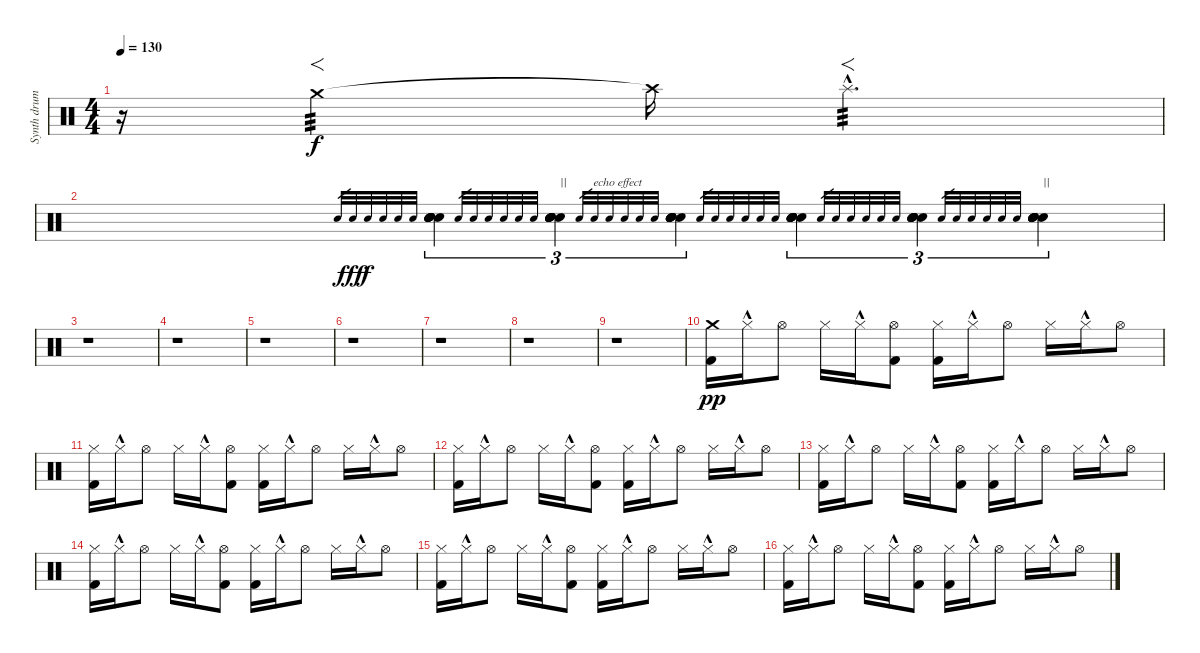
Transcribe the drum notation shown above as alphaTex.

\track ("Synth drums" "Synth drum") {instrument percussion}
\staff {score}
\articulation defaults
\ts (4 4)
\tempo 130
\clef neutral
\ks c
r.16{dy f} "Crash medium (hit)".2{f tp 3} "Crash high (hit)"{t}.16 "Splash (hit)"{hac}.4{f d tp 3} |
"Snare (hit) 2".32{gr} "Snare (hit) 2".32{gr dy fff} "Snare (hit) 2".32{gr dy f} "Snare (hit) 2".32{gr} "Snare (hit) 2".32{gr} "Snare (hit) 2".32{gr} ("Snare (hit) 2" "Snare (hit) 2" "Snare (hit) 2" "Snare (hit) 2" "Snare (hit) 2" "Snare (hit) 2").4{tu (3 2) volume 16} "Snare (hit) 2".32{gr} "Snare (hit) 2".32{gr} "Snare (hit) 2".32{gr} "Snare (hit) 2".32{gr} "Snare (hit) 2".32{gr} "Snare (hit) 2".32{gr} ("Snare (hit) 2" "Snare (hit) 2" "Snare (hit) 2" "Snare (hit) 2" "Snare (hit) 2" "Snare (hit) 2").4{tu (3 2) txt "||         echo effect" volume 13} "Snare (hit) 2".32{gr} "Snare (hit) 2".32{gr} "Snare (hit) 2".32{gr} "Snare (hit) 2".32{gr} "Snare (hit) 2".32{gr} "Snare (hit) 2".32{gr} ("Snare (hit) 2" "Snare (hit) 2" "Snare (hit) 2" "Snare (hit) 2" "Snare (hit) 2" "Snare (hit) 2").4{tu (3 2) volume 10} "Snare (hit) 2".32{gr} "Snare (hit) 2".32{gr} "Snare (hit) 2".32{gr} "Snare (hit) 2".32{gr} "Snare (hit) 2".32{gr} "Snare (hit) 2".32{gr} ("Snare (hit) 2" "Snare (hit) 2" "Snare (hit) 2" "Snare (hit) 2" "Snare (hit) 2" "Snare (hit) 2").4{tu (3 2) volume 8} "Snare (hit) 2".32{gr} "Snare (hit) 2".32{gr} "Snare (hit) 2".32{gr} "Snare (hit) 2".32{gr} "Snare (hit) 2".32{gr} "Snare (hit) 2".32{gr} ("Snare (hit) 2" "Snare (hit) 2" "Snare (hit) 2" "Snare (hit) 2" "Snare (hit) 2" "Snare (hit) 2").4{tu (3 2) volume 6} "Snare (hit) 2".32{gr} "Snare (hit) 2".32{gr} "Snare (hit) 2".32{gr} "Snare (hit) 2".32{gr} "Snare (hit) 2".32{gr} "Snare (hit) 2".32{gr} ("Snare (hit) 2" "Snare (hit) 2" "Snare (hit) 2" "Snare (hit) 2" "Snare (hit) 2" "Snare (hit) 2").4{tu (3 2) txt "||" volume 4} |
r.1 |
r.1 |
r.1 |
r.1 |
r.1 |
r.1 |
r.1 |
("Crash medium (hit)" "Kick (hit) 2").16{dy pp} "Hi-Hat (closed)"{hac}.16 "Hi-Hat (open)".8 "Hi-Hat (closed)".16 "Hi-Hat (closed)"{hac}.16 ("Hi-Hat (open)" "Kick (hit) 2").8 ("Hi-Hat (closed)" "Kick (hit) 2").16 "Hi-Hat (closed)"{hac}.16 "Hi-Hat (open)".8 "Hi-Hat (closed)".16 "Hi-Hat (closed)"{hac}.16 "Hi-Hat (open)".8 |
("Hi-Hat (closed)" "Kick (hit) 2").16 "Hi-Hat (closed)"{hac}.16 "Hi-Hat (open)".8 "Hi-Hat (closed)".16 "Hi-Hat (closed)"{hac}.16 ("Hi-Hat (open)" "Kick (hit) 2").8 ("Hi-Hat (closed)" "Kick (hit) 2").16 "Hi-Hat (closed)"{hac}.16 "Hi-Hat (open)".8 "Hi-Hat (closed)".16 "Hi-Hat (closed)"{hac}.16 "Hi-Hat (open)".8 |
("Hi-Hat (closed)" "Kick (hit) 2").16 "Hi-Hat (closed)"{hac}.16 "Hi-Hat (open)".8 "Hi-Hat (closed)".16 "Hi-Hat (closed)"{hac}.16 ("Hi-Hat (open)" "Kick (hit) 2").8 ("Hi-Hat (closed)" "Kick (hit) 2").16 "Hi-Hat (closed)"{hac}.16 "Hi-Hat (open)".8 "Hi-Hat (closed)".16 "Hi-Hat (closed)"{hac}.16 "Hi-Hat (open)".8 |
("Hi-Hat (closed)" "Kick (hit) 2").16 "Hi-Hat (closed)"{hac}.16 "Hi-Hat (open)".8 "Hi-Hat (closed)".16 "Hi-Hat (closed)"{hac}.16 ("Hi-Hat (open)" "Kick (hit) 2").8 ("Hi-Hat (closed)" "Kick (hit) 2").16 "Hi-Hat (closed)"{hac}.16 "Hi-Hat (open)".8 "Hi-Hat (closed)".16 "Hi-Hat (closed)"{hac}.16 "Hi-Hat (open)".8 |
("Hi-Hat (closed)" "Kick (hit) 2").16 "Hi-Hat (closed)"{hac}.16 "Hi-Hat (open)".8 "Hi-Hat (closed)".16 "Hi-Hat (closed)"{hac}.16 ("Hi-Hat (open)" "Kick (hit) 2").8 ("Hi-Hat (closed)" "Kick (hit) 2").16 "Hi-Hat (closed)"{hac}.16 "Hi-Hat (open)".8 "Hi-Hat (closed)".16 "Hi-Hat (closed)"{hac}.16 "Hi-Hat (open)".8 |
("Hi-Hat (closed)" "Kick (hit) 2").16 "Hi-Hat (closed)"{hac}.16 "Hi-Hat (open)".8 "Hi-Hat (closed)".16 "Hi-Hat (closed)"{hac}.16 ("Hi-Hat (open)" "Kick (hit) 2").8 ("Hi-Hat (closed)" "Kick (hit) 2").16 "Hi-Hat (closed)"{hac}.16 "Hi-Hat (open)".8 "Hi-Hat (closed)".16 "Hi-Hat (closed)"{hac}.16 "Hi-Hat (open)".8 |
("Hi-Hat (closed)" "Kick (hit) 2").16 "Hi-Hat (closed)"{hac}.16 "Hi-Hat (open)".8 "Hi-Hat (closed)".16 "Hi-Hat (closed)"{hac}.16 ("Hi-Hat (open)" "Kick (hit) 2").8 ("Hi-Hat (closed)" "Kick (hit) 2").16 "Hi-Hat (closed)"{hac}.16 "Hi-Hat (open)".8 "Hi-Hat (closed)".16 "Hi-Hat (closed)"{hac}.16 "Hi-Hat (open)".8
